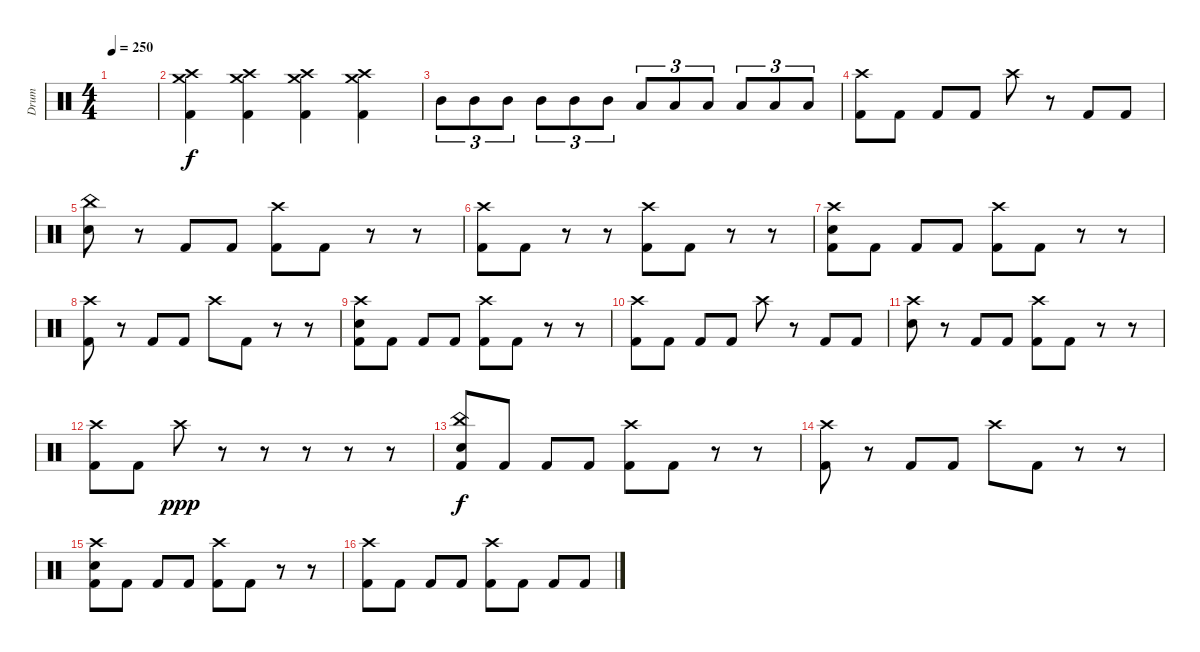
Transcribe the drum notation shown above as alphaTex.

\track ("Drum" "Drum") {instrument percussion}
\staff {score}
\articulation defaults
\ts (4 4)
\tempo 250
\clef neutral
\ks c
|
("Crash medium (hit)" "Crash high (hit)" "Kick (hit) 2").4 ("Crash medium (hit)" "Crash high (hit)" "Kick (hit) 2").4 ("Crash medium (hit)" "Crash high (hit)" "Kick (hit) 2").4 ("Crash medium (hit)" "Crash high (hit)" "Kick (hit) 2").4 |
"Mid Tom (hit)".8{tu (3 2)} "Mid Tom (hit)".8{tu (3 2)} "Mid Tom (hit)".8{tu (3 2)} "Mid Tom (hit)".8{tu (3 2)} "Mid Tom (hit)".8{tu (3 2)} "Mid Tom (hit)".8{tu (3 2)} "Low Tom (hit)".8{tu (3 2)} "Low Tom (hit)".8{tu (3 2)} "Low Tom (hit)".8{tu (3 2)} "Low Tom (hit)".8{tu (3 2)} "Low Tom (hit)".8{tu (3 2)} "Low Tom (hit)".8{tu (3 2)} |
("Crash high (hit)" "Kick (hit) 2").8 "Kick (hit) 2".8 "Kick (hit) 2".8 "Kick (hit) 2".8 "Crash high (hit)".8 r.8 "Kick (hit) 2".8 "Kick (hit) 2".8 |
("China (hit)" "Electric Snare (hit)").8 r.8 "Kick (hit) 2".8 "Kick (hit) 2".8 ("Crash high (hit)" "Kick (hit) 2").8 "Kick (hit) 2".8 r.8 r.8 |
("Crash high (hit)" "Kick (hit) 2").8 "Kick (hit) 2".8 r.8 r.8 ("Crash high (hit)" "Kick (hit) 2").8 "Kick (hit) 2".8 r.8 r.8 |
("Crash high (hit)" "Electric Snare (hit)" "Kick (hit) 2").8 "Kick (hit) 2".8 "Kick (hit) 2".8 "Kick (hit) 2".8 ("Crash high (hit)" "Kick (hit) 2").8 "Kick (hit) 2".8 r.8 r.8 |
("Crash high (hit)" "Kick (hit) 2").8 r.8 "Kick (hit) 2".8 "Kick (hit) 2".8 "Crash high (hit)".8 "Kick (hit) 2".8 r.8 r.8 |
("Crash high (hit)" "Electric Snare (hit)" "Kick (hit) 2").8 "Kick (hit) 2".8 "Kick (hit) 2".8 "Kick (hit) 2".8 ("Crash high (hit)" "Kick (hit) 2").8 "Kick (hit) 2".8 r.8 r.8 |
("Crash high (hit)" "Kick (hit) 2").8 "Kick (hit) 2".8 "Kick (hit) 2".8 "Kick (hit) 2".8 "Crash high (hit)".8 r.8 "Kick (hit) 2".8 "Kick (hit) 2".8 |
("Crash high (hit)" "Electric Snare (hit)").8 r.8 "Kick (hit) 2".8 "Kick (hit) 2".8 ("Crash high (hit)" "Kick (hit) 2").8 "Kick (hit) 2".8 r.8 r.8 |
("Crash high (hit)" "Kick (hit) 2").8 "Kick (hit) 2".8 "Crash high (hit)".8{dy ppp} r.8 r.8 r.8 r.8 r.8 |
("China (hit)" "Electric Snare (hit)" "Kick (hit) 2").8{dy f} "Kick (hit) 2".8 "Kick (hit) 2".8 "Kick (hit) 2".8 ("Crash high (hit)" "Kick (hit) 2").8 "Kick (hit) 2".8 r.8 r.8 |
("Crash high (hit)" "Kick (hit) 2").8 r.8 "Kick (hit) 2".8 "Kick (hit) 2".8 "Crash high (hit)".8 "Kick (hit) 2".8 r.8 r.8 |
("Crash high (hit)" "Electric Snare (hit)" "Kick (hit) 2").8 "Kick (hit) 2".8 "Kick (hit) 2".8 "Kick (hit) 2".8 ("Crash high (hit)" "Kick (hit) 2").8 "Kick (hit) 2".8 r.8 r.8 |
("Crash high (hit)" "Kick (hit) 2").8 "Kick (hit) 2".8 "Kick (hit) 2".8 "Kick (hit) 2".8 ("Crash high (hit)" "Kick (hit) 2").8 "Kick (hit) 2".8 "Kick (hit) 2".8 "Kick (hit) 2".8
